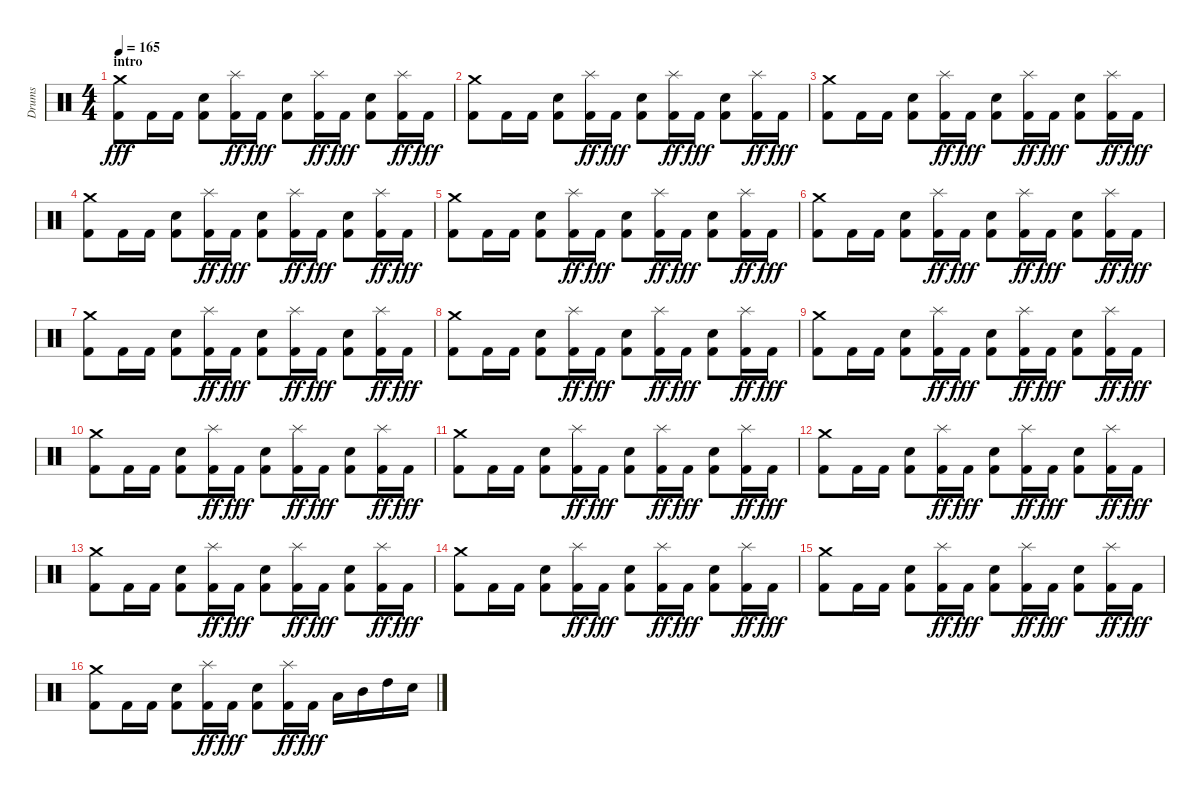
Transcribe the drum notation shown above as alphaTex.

\track ("Drums" "Drums") {instrument percussion}
\staff {score}
\articulation defaults
\ts (4 4)
\section ("" "intro")
\tempo 165
\clef neutral
\ks c
("Kick (hit) 2" "Crash medium (hit)").8{dy fff} "Kick (hit) 2".16 "Kick (hit) 2".16 ("Kick (hit) 2" "Electric Snare (hit)").8 ("Kick (hit) 2" "Splash (hit)").16{dy ff} "Kick (hit) 2".16{dy fff} ("Kick (hit) 2" "Electric Snare (hit)").8 ("Kick (hit) 2" "Splash (hit)").16{dy ff} "Kick (hit) 2".16{dy fff} ("Kick (hit) 2" "Electric Snare (hit)").8 ("Kick (hit) 2" "Splash (hit)").16{dy ff} "Kick (hit) 2".16{dy fff} |
("Kick (hit) 2" "Crash medium (hit)").8 "Kick (hit) 2".16 "Kick (hit) 2".16 ("Kick (hit) 2" "Electric Snare (hit)").8 ("Kick (hit) 2" "Splash (hit)").16{dy ff} "Kick (hit) 2".16{dy fff} ("Kick (hit) 2" "Electric Snare (hit)").8 ("Kick (hit) 2" "Splash (hit)").16{dy ff} "Kick (hit) 2".16{dy fff} ("Kick (hit) 2" "Electric Snare (hit)").8 ("Kick (hit) 2" "Splash (hit)").16{dy ff} "Kick (hit) 2".16{dy fff} |
("Kick (hit) 2" "Crash medium (hit)").8 "Kick (hit) 2".16 "Kick (hit) 2".16 ("Kick (hit) 2" "Electric Snare (hit)").8 ("Kick (hit) 2" "Splash (hit)").16{dy ff} "Kick (hit) 2".16{dy fff} ("Kick (hit) 2" "Electric Snare (hit)").8 ("Kick (hit) 2" "Splash (hit)").16{dy ff} "Kick (hit) 2".16{dy fff} ("Kick (hit) 2" "Electric Snare (hit)").8 ("Kick (hit) 2" "Splash (hit)").16{dy ff} "Kick (hit) 2".16{dy fff} |
("Kick (hit) 2" "Crash medium (hit)").8 "Kick (hit) 2".16 "Kick (hit) 2".16 ("Kick (hit) 2" "Electric Snare (hit)").8 ("Kick (hit) 2" "Splash (hit)").16{dy ff} "Kick (hit) 2".16{dy fff} ("Kick (hit) 2" "Electric Snare (hit)").8 ("Kick (hit) 2" "Splash (hit)").16{dy ff} "Kick (hit) 2".16{dy fff} ("Kick (hit) 2" "Electric Snare (hit)").8 ("Kick (hit) 2" "Splash (hit)").16{dy ff} "Kick (hit) 2".16{dy fff} |
("Kick (hit) 2" "Crash medium (hit)").8 "Kick (hit) 2".16 "Kick (hit) 2".16 ("Kick (hit) 2" "Electric Snare (hit)").8 ("Kick (hit) 2" "Splash (hit)").16{dy ff} "Kick (hit) 2".16{dy fff} ("Kick (hit) 2" "Electric Snare (hit)").8 ("Kick (hit) 2" "Splash (hit)").16{dy ff} "Kick (hit) 2".16{dy fff} ("Kick (hit) 2" "Electric Snare (hit)").8 ("Kick (hit) 2" "Splash (hit)").16{dy ff} "Kick (hit) 2".16{dy fff} |
("Kick (hit) 2" "Crash medium (hit)").8 "Kick (hit) 2".16 "Kick (hit) 2".16 ("Kick (hit) 2" "Electric Snare (hit)").8 ("Kick (hit) 2" "Splash (hit)").16{dy ff} "Kick (hit) 2".16{dy fff} ("Kick (hit) 2" "Electric Snare (hit)").8 ("Kick (hit) 2" "Splash (hit)").16{dy ff} "Kick (hit) 2".16{dy fff} ("Kick (hit) 2" "Electric Snare (hit)").8 ("Kick (hit) 2" "Splash (hit)").16{dy ff} "Kick (hit) 2".16{dy fff} |
("Kick (hit) 2" "Crash medium (hit)").8 "Kick (hit) 2".16 "Kick (hit) 2".16 ("Kick (hit) 2" "Electric Snare (hit)").8 ("Kick (hit) 2" "Splash (hit)").16{dy ff} "Kick (hit) 2".16{dy fff} ("Kick (hit) 2" "Electric Snare (hit)").8 ("Kick (hit) 2" "Splash (hit)").16{dy ff} "Kick (hit) 2".16{dy fff} ("Kick (hit) 2" "Electric Snare (hit)").8 ("Kick (hit) 2" "Splash (hit)").16{dy ff} "Kick (hit) 2".16{dy fff} |
("Kick (hit) 2" "Crash medium (hit)").8 "Kick (hit) 2".16 "Kick (hit) 2".16 ("Kick (hit) 2" "Electric Snare (hit)").8 ("Kick (hit) 2" "Splash (hit)").16{dy ff} "Kick (hit) 2".16{dy fff} ("Kick (hit) 2" "Electric Snare (hit)").8 ("Kick (hit) 2" "Splash (hit)").16{dy ff} "Kick (hit) 2".16{dy fff} ("Kick (hit) 2" "Electric Snare (hit)").8 ("Kick (hit) 2" "Splash (hit)").16{dy ff} "Kick (hit) 2".16{dy fff} |
("Kick (hit) 2" "Crash medium (hit)").8 "Kick (hit) 2".16 "Kick (hit) 2".16 ("Kick (hit) 2" "Electric Snare (hit)").8 ("Kick (hit) 2" "Splash (hit)").16{dy ff} "Kick (hit) 2".16{dy fff} ("Kick (hit) 2" "Electric Snare (hit)").8 ("Kick (hit) 2" "Splash (hit)").16{dy ff} "Kick (hit) 2".16{dy fff} ("Kick (hit) 2" "Electric Snare (hit)").8 ("Kick (hit) 2" "Splash (hit)").16{dy ff} "Kick (hit) 2".16{dy fff} |
("Kick (hit) 2" "Crash medium (hit)").8 "Kick (hit) 2".16 "Kick (hit) 2".16 ("Kick (hit) 2" "Electric Snare (hit)").8 ("Kick (hit) 2" "Splash (hit)").16{dy ff} "Kick (hit) 2".16{dy fff} ("Kick (hit) 2" "Electric Snare (hit)").8 ("Kick (hit) 2" "Splash (hit)").16{dy ff} "Kick (hit) 2".16{dy fff} ("Kick (hit) 2" "Electric Snare (hit)").8 ("Kick (hit) 2" "Splash (hit)").16{dy ff} "Kick (hit) 2".16{dy fff} |
("Kick (hit) 2" "Crash medium (hit)").8 "Kick (hit) 2".16 "Kick (hit) 2".16 ("Kick (hit) 2" "Electric Snare (hit)").8 ("Kick (hit) 2" "Splash (hit)").16{dy ff} "Kick (hit) 2".16{dy fff} ("Kick (hit) 2" "Electric Snare (hit)").8 ("Kick (hit) 2" "Splash (hit)").16{dy ff} "Kick (hit) 2".16{dy fff} ("Kick (hit) 2" "Electric Snare (hit)").8 ("Kick (hit) 2" "Splash (hit)").16{dy ff} "Kick (hit) 2".16{dy fff} |
("Kick (hit) 2" "Crash medium (hit)").8 "Kick (hit) 2".16 "Kick (hit) 2".16 ("Kick (hit) 2" "Electric Snare (hit)").8 ("Kick (hit) 2" "Splash (hit)").16{dy ff} "Kick (hit) 2".16{dy fff} ("Kick (hit) 2" "Electric Snare (hit)").8 ("Kick (hit) 2" "Splash (hit)").16{dy ff} "Kick (hit) 2".16{dy fff} ("Kick (hit) 2" "Electric Snare (hit)").8 ("Kick (hit) 2" "Splash (hit)").16{dy ff} "Kick (hit) 2".16{dy fff} |
("Kick (hit) 2" "Crash medium (hit)").8 "Kick (hit) 2".16 "Kick (hit) 2".16 ("Kick (hit) 2" "Electric Snare (hit)").8 ("Kick (hit) 2" "Splash (hit)").16{dy ff} "Kick (hit) 2".16{dy fff} ("Kick (hit) 2" "Electric Snare (hit)").8 ("Kick (hit) 2" "Splash (hit)").16{dy ff} "Kick (hit) 2".16{dy fff} ("Kick (hit) 2" "Electric Snare (hit)").8 ("Kick (hit) 2" "Splash (hit)").16{dy ff} "Kick (hit) 2".16{dy fff} |
("Kick (hit) 2" "Crash medium (hit)").8 "Kick (hit) 2".16 "Kick (hit) 2".16 ("Kick (hit) 2" "Electric Snare (hit)").8 ("Kick (hit) 2" "Splash (hit)").16{dy ff} "Kick (hit) 2".16{dy fff} ("Kick (hit) 2" "Electric Snare (hit)").8 ("Kick (hit) 2" "Splash (hit)").16{dy ff} "Kick (hit) 2".16{dy fff} ("Kick (hit) 2" "Electric Snare (hit)").8 ("Kick (hit) 2" "Splash (hit)").16{dy ff} "Kick (hit) 2".16{dy fff} |
("Kick (hit) 2" "Crash medium (hit)").8 "Kick (hit) 2".16 "Kick (hit) 2".16 ("Kick (hit) 2" "Electric Snare (hit)").8 ("Kick (hit) 2" "Splash (hit)").16{dy ff} "Kick (hit) 2".16{dy fff} ("Kick (hit) 2" "Electric Snare (hit)").8 ("Kick (hit) 2" "Splash (hit)").16{dy ff} "Kick (hit) 2".16{dy fff} ("Kick (hit) 2" "Electric Snare (hit)").8 ("Kick (hit) 2" "Splash (hit)").16{dy ff} "Kick (hit) 2".16{dy fff} |
("Kick (hit) 2" "Crash medium (hit)").8 "Kick (hit) 2".16 "Kick (hit) 2".16 ("Kick (hit) 2" "Electric Snare (hit)").8 ("Kick (hit) 2" "Splash (hit)").16{dy ff} "Kick (hit) 2".16{dy fff} ("Kick (hit) 2" "Electric Snare (hit)").8 ("Kick (hit) 2" "Splash (hit)").16{dy ff} "Kick (hit) 2".16{dy fff} "Low Tom (hit)".16 "Mid Tom (hit)".16 "High Tom (hit)".16 "Electric Snare (hit)".16
